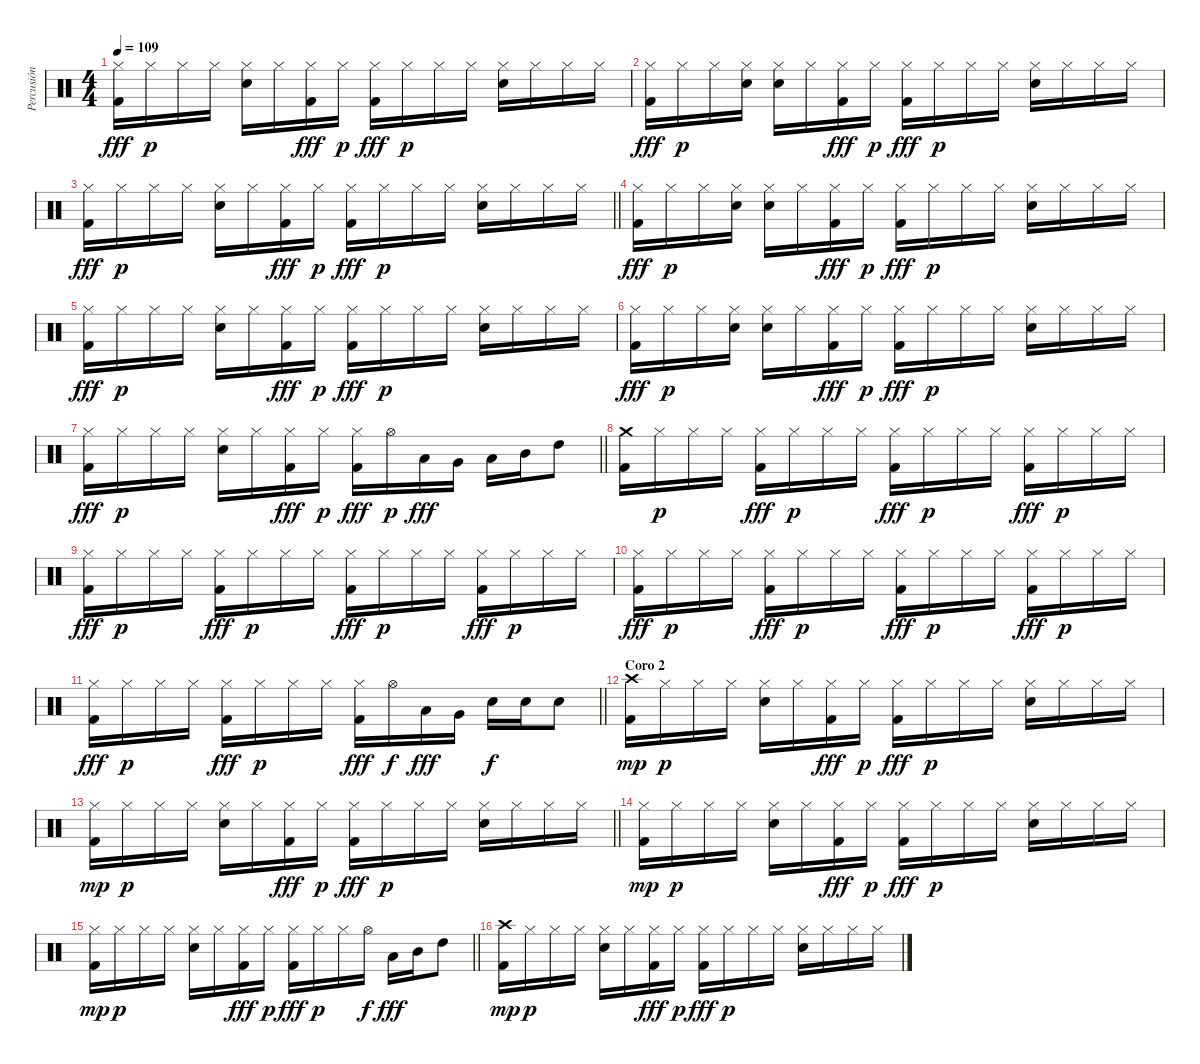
\track ("Percusión" "Percusión") {instrument percussion}
\staff {score}
\articulation defaults
\ts (4 4)
\tempo 109
\clef neutral
\ks c
("Hi-Hat (closed)" "Kick (hit) 2").16{dy fff} "Hi-Hat (closed)".16{dy p} "Hi-Hat (closed)".16 "Hi-Hat (closed)".16 ("Hi-Hat (closed)" "Snare (hit) 2").16 "Hi-Hat (closed)".16 ("Hi-Hat (closed)" "Kick (hit) 2").16{dy fff} "Hi-Hat (closed)".16{dy p} ("Hi-Hat (closed)" "Kick (hit) 2").16{dy fff} "Hi-Hat (closed)".16{dy p} "Hi-Hat (closed)".16 "Hi-Hat (closed)".16 ("Hi-Hat (closed)" "Snare (hit) 2").16 "Hi-Hat (closed)".16 "Hi-Hat (closed)".16 "Hi-Hat (closed)".16 |
("Hi-Hat (closed)" "Kick (hit) 2").16{dy fff} "Hi-Hat (closed)".16{dy p} "Hi-Hat (closed)".16 ("Hi-Hat (closed)" "Snare (hit) 2").16 ("Hi-Hat (closed)" "Snare (hit) 2").16 "Hi-Hat (closed)".16 ("Hi-Hat (closed)" "Kick (hit) 2").16{dy fff} "Hi-Hat (closed)".16{dy p} ("Hi-Hat (closed)" "Kick (hit) 2").16{dy fff} "Hi-Hat (closed)".16{dy p} "Hi-Hat (closed)".16 "Hi-Hat (closed)".16 ("Hi-Hat (closed)" "Snare (hit) 2").16 "Hi-Hat (closed)".16 "Hi-Hat (closed)".16 "Hi-Hat (closed)".16 |
\barLineRight lightlight
("Hi-Hat (closed)" "Kick (hit) 2").16{dy fff} "Hi-Hat (closed)".16{dy p} "Hi-Hat (closed)".16 "Hi-Hat (closed)".16 ("Hi-Hat (closed)" "Snare (hit) 2").16 "Hi-Hat (closed)".16 ("Hi-Hat (closed)" "Kick (hit) 2").16{dy fff} "Hi-Hat (closed)".16{dy p} ("Hi-Hat (closed)" "Kick (hit) 2").16{dy fff} "Hi-Hat (closed)".16{dy p} "Hi-Hat (closed)".16 "Hi-Hat (closed)".16 ("Hi-Hat (closed)" "Snare (hit) 2").16 "Hi-Hat (closed)".16 "Hi-Hat (closed)".16 "Hi-Hat (closed)".16 |
("Hi-Hat (closed)" "Kick (hit) 2").16{dy fff} "Hi-Hat (closed)".16{dy p} "Hi-Hat (closed)".16 ("Hi-Hat (closed)" "Snare (hit) 2").16 ("Hi-Hat (closed)" "Snare (hit) 2").16 "Hi-Hat (closed)".16 ("Hi-Hat (closed)" "Kick (hit) 2").16{dy fff} "Hi-Hat (closed)".16{dy p} ("Hi-Hat (closed)" "Kick (hit) 2").16{dy fff} "Hi-Hat (closed)".16{dy p} "Hi-Hat (closed)".16 "Hi-Hat (closed)".16 ("Hi-Hat (closed)" "Snare (hit) 2").16 "Hi-Hat (closed)".16 "Hi-Hat (closed)".16 "Hi-Hat (closed)".16 |
("Hi-Hat (closed)" "Kick (hit) 2").16{dy fff} "Hi-Hat (closed)".16{dy p} "Hi-Hat (closed)".16 "Hi-Hat (closed)".16 ("Hi-Hat (closed)" "Snare (hit) 2").16 "Hi-Hat (closed)".16 ("Hi-Hat (closed)" "Kick (hit) 2").16{dy fff} "Hi-Hat (closed)".16{dy p} ("Hi-Hat (closed)" "Kick (hit) 2").16{dy fff} "Hi-Hat (closed)".16{dy p} "Hi-Hat (closed)".16 "Hi-Hat (closed)".16 ("Hi-Hat (closed)" "Snare (hit) 2").16 "Hi-Hat (closed)".16 "Hi-Hat (closed)".16 "Hi-Hat (closed)".16 |
("Hi-Hat (closed)" "Kick (hit) 2").16{dy fff} "Hi-Hat (closed)".16{dy p} "Hi-Hat (closed)".16 ("Hi-Hat (closed)" "Snare (hit) 2").16 ("Hi-Hat (closed)" "Snare (hit) 2").16 "Hi-Hat (closed)".16 ("Hi-Hat (closed)" "Kick (hit) 2").16{dy fff} "Hi-Hat (closed)".16{dy p} ("Hi-Hat (closed)" "Kick (hit) 2").16{dy fff} "Hi-Hat (closed)".16{dy p} "Hi-Hat (closed)".16 "Hi-Hat (closed)".16 ("Hi-Hat (closed)" "Snare (hit) 2").16 "Hi-Hat (closed)".16 "Hi-Hat (closed)".16 "Hi-Hat (closed)".16 |
\barLineRight lightlight
("Hi-Hat (closed)" "Kick (hit) 2").16{dy fff} "Hi-Hat (closed)".16{dy p} "Hi-Hat (closed)".16 "Hi-Hat (closed)".16 ("Hi-Hat (closed)" "Snare (hit) 2").16 "Hi-Hat (closed)".16 ("Hi-Hat (closed)" "Kick (hit) 2").16{dy fff} "Hi-Hat (closed)".16{dy p} ("Hi-Hat (closed)" "Kick (hit) 2").16{dy fff} "Hi-Hat (open)".16{dy p} "Low Floor Tom (hit)".16{dy fff} "Very Low Tom (hit)".16 "Low Tom (hit)".16 "Mid Tom (hit)".16 "High Tom (hit)".8 |
("Crash medium (hit)" "Kick (hit) 2").16 "Hi-Hat (closed)".16{dy p} "Hi-Hat (closed)".16 "Hi-Hat (closed)".16 ("Hi-Hat (closed)" "Kick (hit) 2").16{dy fff} "Hi-Hat (closed)".16{dy p} "Hi-Hat (closed)".16 "Hi-Hat (closed)".16 ("Hi-Hat (closed)" "Kick (hit) 2").16{dy fff} "Hi-Hat (closed)".16{dy p} "Hi-Hat (closed)".16 "Hi-Hat (closed)".16 ("Hi-Hat (closed)" "Kick (hit) 2").16{dy fff} "Hi-Hat (closed)".16{dy p} "Hi-Hat (closed)".16 "Hi-Hat (closed)".16 |
("Hi-Hat (closed)" "Kick (hit) 2").16{dy fff} "Hi-Hat (closed)".16{dy p} "Hi-Hat (closed)".16 "Hi-Hat (closed)".16 ("Hi-Hat (closed)" "Kick (hit) 2").16{dy fff} "Hi-Hat (closed)".16{dy p} "Hi-Hat (closed)".16 "Hi-Hat (closed)".16 ("Hi-Hat (closed)" "Kick (hit) 2").16{dy fff} "Hi-Hat (closed)".16{dy p} "Hi-Hat (closed)".16 "Hi-Hat (closed)".16 ("Hi-Hat (closed)" "Kick (hit) 2").16{dy fff} "Hi-Hat (closed)".16{dy p} "Hi-Hat (closed)".16 "Hi-Hat (closed)".16 |
("Hi-Hat (closed)" "Kick (hit) 2").16{dy fff} "Hi-Hat (closed)".16{dy p} "Hi-Hat (closed)".16 "Hi-Hat (closed)".16 ("Hi-Hat (closed)" "Kick (hit) 2").16{dy fff} "Hi-Hat (closed)".16{dy p} "Hi-Hat (closed)".16 "Hi-Hat (closed)".16 ("Hi-Hat (closed)" "Kick (hit) 2").16{dy fff} "Hi-Hat (closed)".16{dy p} "Hi-Hat (closed)".16 "Hi-Hat (closed)".16 ("Hi-Hat (closed)" "Kick (hit) 2").16{dy fff} "Hi-Hat (closed)".16{dy p} "Hi-Hat (closed)".16 "Hi-Hat (closed)".16 |
\barLineRight lightlight
("Hi-Hat (closed)" "Kick (hit) 2").16{dy fff} "Hi-Hat (closed)".16{dy p} "Hi-Hat (closed)".16 "Hi-Hat (closed)".16 ("Hi-Hat (closed)" "Kick (hit) 2").16{dy fff} "Hi-Hat (closed)".16{dy p} "Hi-Hat (closed)".16 "Hi-Hat (closed)".16 ("Hi-Hat (closed)" "Kick (hit) 2").16{dy fff} "Hi-Hat (open)".16{dy f} "Low Floor Tom (hit)".16{dy fff} "Very Low Tom (hit)".16 "Snare (hit) 2".16{dy f} "Snare (hit) 2".16 "Snare (hit) 2".8 |
\section ("" "Coro 2")
("Crash high (hit)" "Kick (hit) 2").16{dy mp} "Hi-Hat (closed)".16{dy p} "Hi-Hat (closed)".16 "Hi-Hat (closed)".16 ("Hi-Hat (closed)" "Snare (hit) 2").16 "Hi-Hat (closed)".16 ("Hi-Hat (closed)" "Kick (hit) 2").16{dy fff} "Hi-Hat (closed)".16{dy p} ("Hi-Hat (closed)" "Kick (hit) 2").16{dy fff} "Hi-Hat (closed)".16{dy p} "Hi-Hat (closed)".16 "Hi-Hat (closed)".16 ("Hi-Hat (closed)" "Snare (hit) 2").16 "Hi-Hat (closed)".16 "Hi-Hat (closed)".16 "Hi-Hat (closed)".16 |
\barLineRight lightlight
("Hi-Hat (closed)" "Kick (hit) 2").16{dy mp} "Hi-Hat (closed)".16{dy p} "Hi-Hat (closed)".16 "Hi-Hat (closed)".16 ("Hi-Hat (closed)" "Snare (hit) 2").16 "Hi-Hat (closed)".16 ("Hi-Hat (closed)" "Kick (hit) 2").16{dy fff} "Hi-Hat (closed)".16{dy p} ("Hi-Hat (closed)" "Kick (hit) 2").16{dy fff} "Hi-Hat (closed)".16{dy p} "Hi-Hat (closed)".16 "Hi-Hat (closed)".16 ("Hi-Hat (closed)" "Snare (hit) 2").16 "Hi-Hat (closed)".16 "Hi-Hat (closed)".16 "Hi-Hat (closed)".16 |
("Hi-Hat (closed)" "Kick (hit) 2").16{dy mp} "Hi-Hat (closed)".16{dy p} "Hi-Hat (closed)".16 "Hi-Hat (closed)".16 ("Hi-Hat (closed)" "Snare (hit) 2").16 "Hi-Hat (closed)".16 ("Hi-Hat (closed)" "Kick (hit) 2").16{dy fff} "Hi-Hat (closed)".16{dy p} ("Hi-Hat (closed)" "Kick (hit) 2").16{dy fff} "Hi-Hat (closed)".16{dy p} "Hi-Hat (closed)".16 "Hi-Hat (closed)".16 ("Hi-Hat (closed)" "Snare (hit) 2").16 "Hi-Hat (closed)".16 "Hi-Hat (closed)".16 "Hi-Hat (closed)".16 |
\barLineRight lightlight
("Hi-Hat (closed)" "Kick (hit) 2").16{dy mp} "Hi-Hat (closed)".16{dy p} "Hi-Hat (closed)".16 "Hi-Hat (closed)".16 ("Hi-Hat (closed)" "Snare (hit) 2").16 "Hi-Hat (closed)".16 ("Hi-Hat (closed)" "Kick (hit) 2").16{dy fff} "Hi-Hat (closed)".16{dy p} ("Hi-Hat (closed)" "Kick (hit) 2").16{dy fff} "Hi-Hat (closed)".16{dy p} "Hi-Hat (closed)".16 "Hi-Hat (open)".16{dy f} "Low Tom (hit)".16{dy fff} "Mid Tom (hit)".16 "High Tom (hit)".8 |
("Crash high (hit)" "Kick (hit) 2").16{dy mp} "Hi-Hat (closed)".16{dy p} "Hi-Hat (closed)".16 "Hi-Hat (closed)".16 ("Hi-Hat (closed)" "Snare (hit) 2").16 "Hi-Hat (closed)".16 ("Hi-Hat (closed)" "Kick (hit) 2").16{dy fff} "Hi-Hat (closed)".16{dy p} ("Hi-Hat (closed)" "Kick (hit) 2").16{dy fff} "Hi-Hat (closed)".16{dy p} "Hi-Hat (closed)".16 "Hi-Hat (closed)".16 ("Hi-Hat (closed)" "Snare (hit) 2").16 "Hi-Hat (closed)".16 "Hi-Hat (closed)".16 "Hi-Hat (closed)".16
